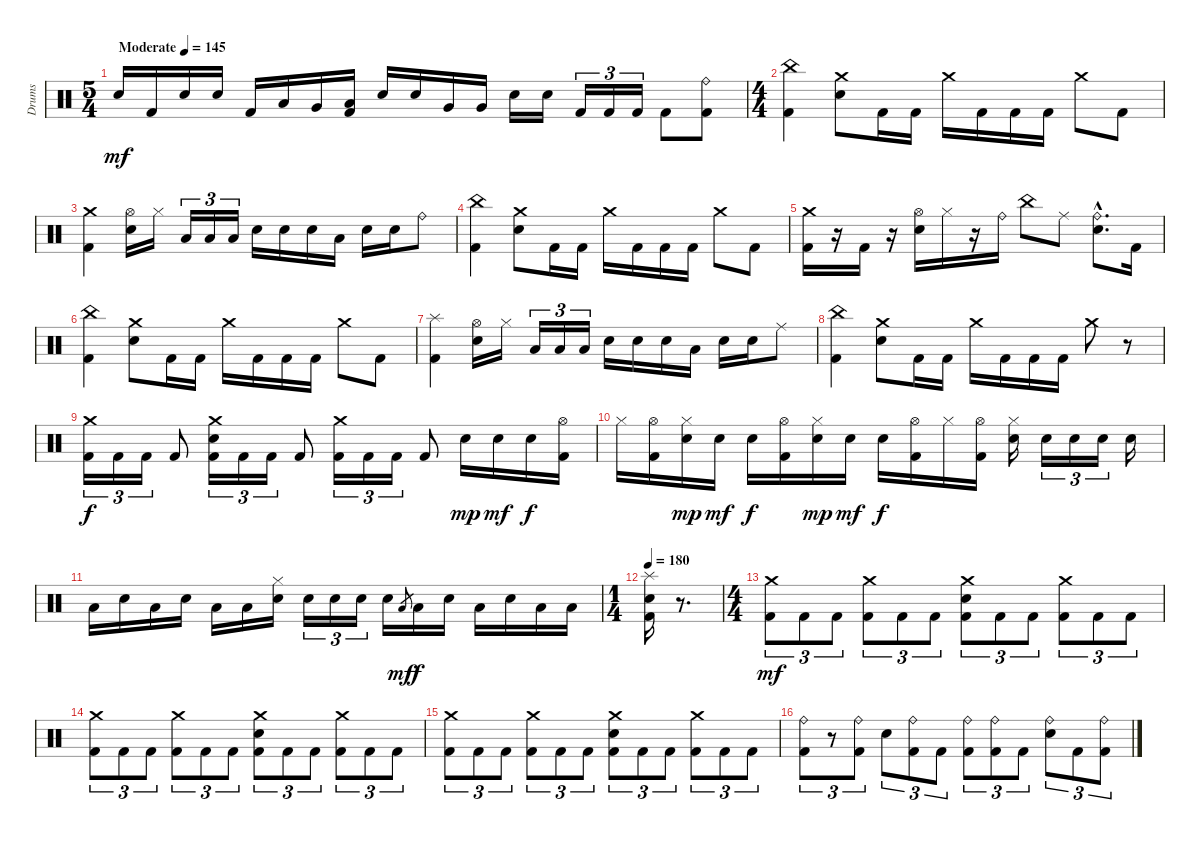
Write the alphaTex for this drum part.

\track ("Drums" "Drums") {instrument percussion}
\staff {score}
\articulation defaults
\ts (5 4)
\tempo (145 "Moderate")
\clef neutral
\ks c "Electric Snare (hit)".16{dy mf} "Kick (hit) 2".16 "Electric Snare (hit)".16 "Electric Snare (hit)".16 "Kick (hit) 2".16 "Low Tom (hit)".16 "Very Low Tom (hit)".16
("Low Floor Tom (hit)" "Kick (hit) 2").16 "Electric Snare (hit)".16 "Electric Snare (hit)".16 "Very Low Tom (hit)".16 "Very Low Tom (hit)".16 "Electric Snare (hit)".16 "Electric Snare (hit)".16{beam splitsecondary} "Kick (hit) 2".16{tu (3 2)} "Kick (hit) 2".16{tu (3 2)} "Kick (hit) 2".16{tu (3 2)} "Kick (hit) 2".8 ("Ride (bell)" "Kick (hit) 2").8 |
\ts (4 4)
("China (hit)" "Kick (hit) 2").4 ("Crash medium (hit)" "Electric Snare (hit)").8 "Kick (hit) 2".16 "Kick (hit) 2".16 "Crash medium (hit)".16 "Kick (hit) 2".16 "Kick (hit) 2".16 "Kick (hit) 2".16 "Crash medium (hit)".8 "Kick (hit) 2".8 |
("Crash medium (hit)" "Kick (hit) 2").4 ("Hi-Hat (open)" "Electric Snare (hit)").16 "Hi-Hat (closed)".16{beam splitsecondary} "Low Tom (hit)".16{tu (3 2)} "Low Tom (hit)".16{tu (3 2)} "Low Tom (hit)".16{tu (3 2)} "Electric Snare (hit)".16 "Electric Snare (hit)".16 "Electric Snare (hit)".16 "Low Tom (hit)".16 "Electric Snare (hit)".16 "Electric Snare (hit)".16 "Ride (bell)".8 |
("China (hit)" "Kick (hit) 2").4 ("Crash medium (hit)" "Electric Snare (hit)").8 "Kick (hit) 2".16 "Kick (hit) 2".16 "Crash medium (hit)".16 "Kick (hit) 2".16 "Kick (hit) 2".16 "Kick (hit) 2".16 "Crash medium (hit)".8 "Kick (hit) 2".8 |
("Crash medium (hit)" "Kick (hit) 2").16 r.16 "Kick (hit) 2".16 r.16 ("Hi-Hat (open)" "Electric Snare (hit)").16 "Hi-Hat (closed)".16 r.16 "Ride (bell)".16 "China (hit)".8 "Ride (middle)".8 ("Ride (bell)" "Electric Snare (hit)"{hac}).8{d} "Kick (hit) 2".16 |
("China (hit)" "Kick (hit) 2").4 ("Crash medium (hit)" "Electric Snare (hit)").8 "Kick (hit) 2".16 "Kick (hit) 2".16 "Crash medium (hit)".16 "Kick (hit) 2".16 "Kick (hit) 2".16 "Kick (hit) 2".16 "Crash medium (hit)".8 "Kick (hit) 2".8 |
("Splash (hit)" "Kick (hit) 2").4 ("Hi-Hat (open)" "Electric Snare (hit)").16 "Hi-Hat (closed)".16{beam splitsecondary} "Low Tom (hit)".16{tu (3 2)} "Low Tom (hit)".16{tu (3 2)} "Low Tom (hit)".16{tu (3 2)} "Electric Snare (hit)".16 "Electric Snare (hit)".16 "Electric Snare (hit)".16 "Low Tom (hit)".16 "Electric Snare (hit)".16 "Electric Snare (hit)".16 "Ride (middle)".8 |
("China (hit)" "Kick (hit) 2").4 ("Crash medium (hit)" "Electric Snare (hit)").8 "Kick (hit) 2".16 "Kick (hit) 2".16 "Crash medium (hit)".16 "Kick (hit) 2".16 "Kick (hit) 2".16 "Kick (hit) 2".16 "Crash medium (hit)".8 r.8 |
("Crash medium (hit)" "Kick (hit) 2").16{tu (3 2) dy f} "Kick (hit) 2".16{tu (3 2)} "Kick (hit) 2".16{tu (3 2)} "Kick (hit) 2".8 ("Crash medium (hit)" "Electric Snare (hit)" "Kick (hit) 2").16{tu (3 2)} "Kick (hit) 2".16{tu (3 2)} "Kick (hit) 2".16{tu (3 2)} "Kick (hit) 2".8 ("Crash medium (hit)" "Kick (hit) 2").16{tu (3 2)} "Kick (hit) 2".16{tu (3 2)} "Kick (hit) 2".16{tu (3 2)} "Kick (hit) 2".8 "Electric Snare (hit)".16{dy mp} "Electric Snare (hit)".16{dy mf} "Electric Snare (hit)".16{dy f} ("Hi-Hat (open)" "Kick (hit) 2").16 |
"Hi-Hat (closed)".16 ("Hi-Hat (open)" "Kick (hit) 2").16 ("Hi-Hat (closed)" "Electric Snare (hit)").16{dy mp} "Electric Snare (hit)".16{dy mf} "Electric Snare (hit)".16{dy f} ("Hi-Hat (open)" "Kick (hit) 2").16 ("Hi-Hat (closed)" "Electric Snare (hit)").16{dy mp} "Electric Snare (hit)".16{dy mf} "Electric Snare (hit)".16{dy f} ("Hi-Hat (open)" "Kick (hit) 2").16 "Hi-Hat (closed)".16 ("Hi-Hat (open)" "Kick (hit) 2").16 ("Hi-Hat (closed)" "Electric Snare (hit)").16{beam splitsecondary} "Electric Snare (hit)".16{tu (3 2)} "Electric Snare (hit)".16{tu (3 2)} "Electric Snare (hit)".16{tu (3 2) beam splitsecondary} "Electric Snare (hit)".16 |
"Low Tom (hit)".16 "Electric Snare (hit)".16 "Low Tom (hit)".16 "Electric Snare (hit)".16 "Low Tom (hit)".16 "Low Tom (hit)".16 ("Hi-Hat (closed)" "Electric Snare (hit)").16{beam splitsecondary} "Electric Snare (hit)".16{tu (3 2)} "Electric Snare (hit)".16{tu (3 2)} "Electric Snare (hit)".16{tu (3 2) beam splitsecondary} "Electric Snare (hit)".16 "Low Tom (hit)".8{gr dy mf} "Low Tom (hit)".16{dy f} "Electric Snare (hit)".16 "Low Tom (hit)".16 "Electric Snare (hit)".16 "Low Tom (hit)".16 "Low Tom (hit)".16 |
\ts (1 4)
\tempo 180
("Splash (hit)" "Electric Snare (hit)" "Kick (hit) 2").16 r.8{d} |
\ts (4 4)
("Crash medium (hit)" "Kick (hit) 2").8{tu (3 2) dy mf} "Kick (hit) 2".8{tu (3 2)} "Kick (hit) 2".8{tu (3 2)} ("Crash medium (hit)" "Kick (hit) 2").8{tu (3 2)} "Kick (hit) 2".8{tu (3 2)} "Kick (hit) 2".8{tu (3 2)} ("Crash medium (hit)" "Electric Snare (hit)" "Kick (hit) 2").8{tu (3 2)} "Kick (hit) 2".8{tu (3 2)} "Kick (hit) 2".8{tu (3 2)} ("Crash medium (hit)" "Kick (hit) 2").8{tu (3 2)} "Kick (hit) 2".8{tu (3 2)} "Kick (hit) 2".8{tu (3 2)} |
("Crash medium (hit)" "Kick (hit) 2").8{tu (3 2)} "Kick (hit) 2".8{tu (3 2)} "Kick (hit) 2".8{tu (3 2)} ("Crash medium (hit)" "Kick (hit) 2").8{tu (3 2)} "Kick (hit) 2".8{tu (3 2)} "Kick (hit) 2".8{tu (3 2)} ("Crash medium (hit)" "Electric Snare (hit)" "Kick (hit) 2").8{tu (3 2)} "Kick (hit) 2".8{tu (3 2)} "Kick (hit) 2".8{tu (3 2)} ("Crash medium (hit)" "Kick (hit) 2").8{tu (3 2)} "Kick (hit) 2".8{tu (3 2)} "Kick (hit) 2".8{tu (3 2)} |
("Crash medium (hit)" "Kick (hit) 2").8{tu (3 2)} "Kick (hit) 2".8{tu (3 2)} "Kick (hit) 2".8{tu (3 2)} ("Crash medium (hit)" "Kick (hit) 2").8{tu (3 2)} "Kick (hit) 2".8{tu (3 2)} "Kick (hit) 2".8{tu (3 2)} ("Crash medium (hit)" "Electric Snare (hit)" "Kick (hit) 2").8{tu (3 2)} "Kick (hit) 2".8{tu (3 2)} "Kick (hit) 2".8{tu (3 2)} ("Crash medium (hit)" "Kick (hit) 2").8{tu (3 2)} "Kick (hit) 2".8{tu (3 2)} "Kick (hit) 2".8{tu (3 2)} |
("Ride (bell)" "Kick (hit) 2").8{tu (3 2)} r.8{tu (3 2)} ("Ride (bell)" "Kick (hit) 2").8{tu (3 2)} "Electric Snare (hit)".8{tu (3 2)} ("Ride (bell)" "Kick (hit) 2").8{tu (3 2)} "Kick (hit) 2".8{tu (3 2)} ("Ride (bell)" "Kick (hit) 2").8{tu (3 2)} ("Ride (bell)" "Kick (hit) 2").8{tu (3 2)} "Kick (hit) 2".8{tu (3 2)} ("Ride (bell)" "Electric Snare (hit)").8{tu (3 2)} "Kick (hit) 2".8{tu (3 2)} ("Ride (bell)" "Kick (hit) 2").8{tu (3 2)}
